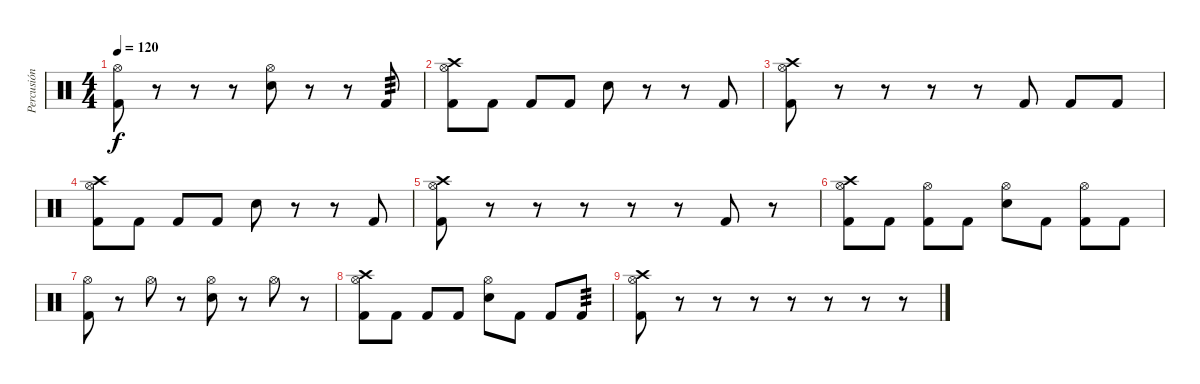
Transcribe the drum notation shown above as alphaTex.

\track ("Percusión" "Percusión") {instrument percussion}
\staff {score}
\articulation defaults
\ts (4 4)
\tempo 120
\clef neutral
\ks c
("Hi-Hat (open)" "Kick (hit) 2").8{dy f} r.8 r.8 r.8 ("Hi-Hat (open)" "Snare (hit) 2").8 r.8 r.8 "Kick (hit) 2".8{tp 3} |
("Hi-Hat (open)" "Kick (hit) 2" "Crash high (hit)").8 "Kick (hit) 2".8 "Kick (hit) 2".8 "Kick (hit) 2".8 "Snare (hit) 2".8 r.8 r.8 "Kick (hit) 2".8 |
("Hi-Hat (open)" "Kick (hit) 2" "Crash high (hit)").8 r.8 r.8 r.8 r.8 "Kick (hit) 2".8 "Kick (hit) 2".8 "Kick (hit) 2".8 |
("Hi-Hat (open)" "Kick (hit) 2" "Crash high (hit)").8 "Kick (hit) 2".8 "Kick (hit) 2".8 "Kick (hit) 2".8 "Snare (hit) 2".8 r.8 r.8 "Kick (hit) 2".8 |
("Hi-Hat (open)" "Kick (hit) 2" "Crash high (hit)").8 r.8 r.8 r.8 r.8 r.8 "Kick (hit) 2".8 r.8 |
("Hi-Hat (open)" "Kick (hit) 2" "Crash high (hit)").8 "Kick (hit) 2".8 ("Hi-Hat (open)" "Kick (hit) 2").8 "Kick (hit) 2".8 ("Hi-Hat (open)" "Snare (hit) 2").8 "Kick (hit) 2".8 ("Hi-Hat (open)" "Kick (hit) 2").8 "Kick (hit) 2".8 |
("Hi-Hat (open)" "Kick (hit) 2").8 r.8 "Hi-Hat (open)".8 r.8 ("Hi-Hat (open)" "Snare (hit) 2").8 r.8 "Hi-Hat (open)".8 r.8 |
("Hi-Hat (open)" "Kick (hit) 2" "Crash high (hit)").8 "Kick (hit) 2".8 "Kick (hit) 2".8 "Kick (hit) 2".8 ("Hi-Hat (open)" "Snare (hit) 2").8 "Kick (hit) 2".8 "Kick (hit) 2".8 "Kick (hit) 2".8{tp 3} |
("Hi-Hat (open)" "Kick (hit) 2" "Crash high (hit)").8 r.8 r.8 r.8 r.8 r.8 r.8 r.8
